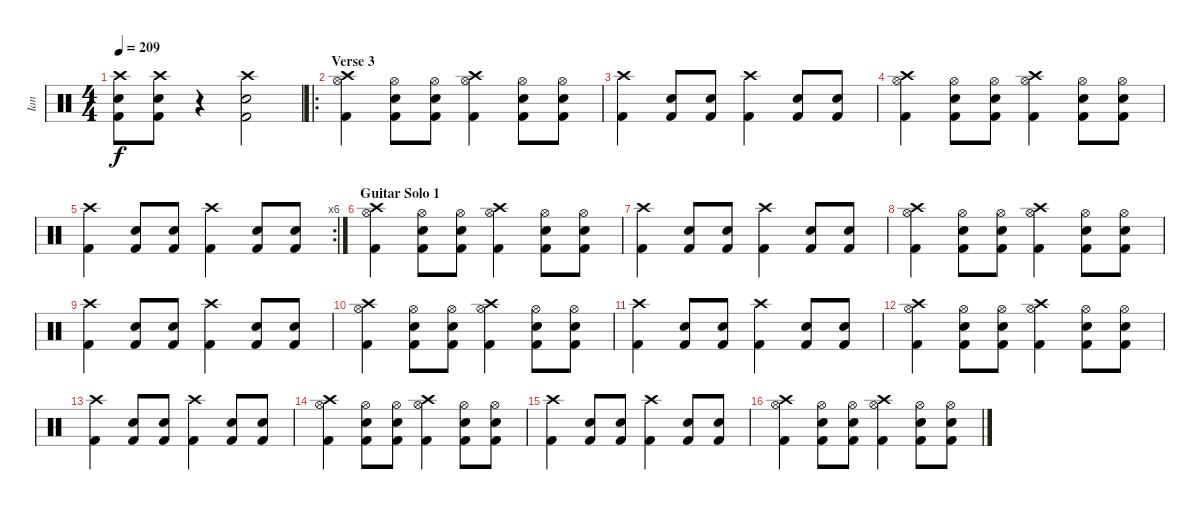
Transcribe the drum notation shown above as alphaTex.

\track ("Ian" "Ian") {instrument percussion}
\staff {score}
\articulation defaults
\ts (4 4)
\tempo 209
\clef neutral
\ks c
("Crash high (hit)" "Electric Snare (hit)" "Kick (hit) 2").8{dy f} ("Crash high (hit)" "Electric Snare (hit)" "Kick (hit) 2").8 r.4 ("Electric Snare (hit)" "Crash high (hit)" "Kick (hit) 2").2 |
\ro
\section ("" "Verse 3")
("Hi-Hat (open)" "Crash high (hit)" "Kick (hit) 2").4 ("Electric Snare (hit)" "Hi-Hat (open)" "Kick (hit) 2").8 ("Electric Snare (hit)" "Hi-Hat (open)" "Kick (hit) 2").8 ("Hi-Hat (open)" "Crash high (hit)" "Kick (hit) 2").4 ("Electric Snare (hit)" "Hi-Hat (open)" "Kick (hit) 2").8 ("Electric Snare (hit)" "Hi-Hat (open)" "Kick (hit) 2").8 |
("Crash high (hit)" "Kick (hit) 2").4 ("Electric Snare (hit)" "Kick (hit) 2").8 ("Electric Snare (hit)" "Kick (hit) 2").8 ("Crash high (hit)" "Kick (hit) 2").4 ("Electric Snare (hit)" "Kick (hit) 2").8 ("Electric Snare (hit)" "Kick (hit) 2").8 |
("Hi-Hat (open)" "Crash high (hit)" "Kick (hit) 2").4 ("Electric Snare (hit)" "Hi-Hat (open)" "Kick (hit) 2").8 ("Electric Snare (hit)" "Hi-Hat (open)" "Kick (hit) 2").8 ("Hi-Hat (open)" "Crash high (hit)" "Kick (hit) 2").4 ("Electric Snare (hit)" "Hi-Hat (open)" "Kick (hit) 2").8 ("Electric Snare (hit)" "Hi-Hat (open)" "Kick (hit) 2").8 |
\rc 6
("Crash high (hit)" "Kick (hit) 2").4 ("Electric Snare (hit)" "Kick (hit) 2").8 ("Electric Snare (hit)" "Kick (hit) 2").8 ("Crash high (hit)" "Kick (hit) 2").4 ("Electric Snare (hit)" "Kick (hit) 2").8 ("Electric Snare (hit)" "Kick (hit) 2").8 |
\section ("" "Guitar Solo 1")
("Hi-Hat (open)" "Crash high (hit)" "Kick (hit) 2").4 ("Electric Snare (hit)" "Hi-Hat (open)" "Kick (hit) 2").8 ("Electric Snare (hit)" "Hi-Hat (open)" "Kick (hit) 2").8 ("Hi-Hat (open)" "Crash high (hit)" "Kick (hit) 2").4 ("Electric Snare (hit)" "Hi-Hat (open)" "Kick (hit) 2").8 ("Electric Snare (hit)" "Hi-Hat (open)" "Kick (hit) 2").8 |
("Crash high (hit)" "Kick (hit) 2").4 ("Electric Snare (hit)" "Kick (hit) 2").8 ("Electric Snare (hit)" "Kick (hit) 2").8 ("Crash high (hit)" "Kick (hit) 2").4 ("Electric Snare (hit)" "Kick (hit) 2").8 ("Electric Snare (hit)" "Kick (hit) 2").8 |
("Hi-Hat (open)" "Crash high (hit)" "Kick (hit) 2").4 ("Electric Snare (hit)" "Hi-Hat (open)" "Kick (hit) 2").8 ("Electric Snare (hit)" "Hi-Hat (open)" "Kick (hit) 2").8 ("Hi-Hat (open)" "Crash high (hit)" "Kick (hit) 2").4 ("Electric Snare (hit)" "Hi-Hat (open)" "Kick (hit) 2").8 ("Electric Snare (hit)" "Hi-Hat (open)" "Kick (hit) 2").8 |
("Crash high (hit)" "Kick (hit) 2").4 ("Electric Snare (hit)" "Kick (hit) 2").8 ("Electric Snare (hit)" "Kick (hit) 2").8 ("Crash high (hit)" "Kick (hit) 2").4 ("Electric Snare (hit)" "Kick (hit) 2").8 ("Electric Snare (hit)" "Kick (hit) 2").8 |
("Hi-Hat (open)" "Crash high (hit)" "Kick (hit) 2").4 ("Electric Snare (hit)" "Hi-Hat (open)" "Kick (hit) 2").8 ("Electric Snare (hit)" "Hi-Hat (open)" "Kick (hit) 2").8 ("Hi-Hat (open)" "Crash high (hit)" "Kick (hit) 2").4 ("Electric Snare (hit)" "Hi-Hat (open)" "Kick (hit) 2").8 ("Electric Snare (hit)" "Hi-Hat (open)" "Kick (hit) 2").8 |
("Crash high (hit)" "Kick (hit) 2").4 ("Electric Snare (hit)" "Kick (hit) 2").8 ("Electric Snare (hit)" "Kick (hit) 2").8 ("Crash high (hit)" "Kick (hit) 2").4 ("Electric Snare (hit)" "Kick (hit) 2").8 ("Electric Snare (hit)" "Kick (hit) 2").8 |
("Hi-Hat (open)" "Crash high (hit)" "Kick (hit) 2").4 ("Electric Snare (hit)" "Hi-Hat (open)" "Kick (hit) 2").8 ("Electric Snare (hit)" "Hi-Hat (open)" "Kick (hit) 2").8 ("Hi-Hat (open)" "Crash high (hit)" "Kick (hit) 2").4 ("Electric Snare (hit)" "Hi-Hat (open)" "Kick (hit) 2").8 ("Electric Snare (hit)" "Hi-Hat (open)" "Kick (hit) 2").8 |
("Crash high (hit)" "Kick (hit) 2").4 ("Electric Snare (hit)" "Kick (hit) 2").8 ("Electric Snare (hit)" "Kick (hit) 2").8 ("Crash high (hit)" "Kick (hit) 2").4 ("Electric Snare (hit)" "Kick (hit) 2").8 ("Electric Snare (hit)" "Kick (hit) 2").8 |
("Hi-Hat (open)" "Crash high (hit)" "Kick (hit) 2").4 ("Electric Snare (hit)" "Hi-Hat (open)" "Kick (hit) 2").8 ("Electric Snare (hit)" "Hi-Hat (open)" "Kick (hit) 2").8 ("Hi-Hat (open)" "Crash high (hit)" "Kick (hit) 2").4 ("Electric Snare (hit)" "Hi-Hat (open)" "Kick (hit) 2").8 ("Electric Snare (hit)" "Hi-Hat (open)" "Kick (hit) 2").8 |
("Crash high (hit)" "Kick (hit) 2").4 ("Electric Snare (hit)" "Kick (hit) 2").8 ("Electric Snare (hit)" "Kick (hit) 2").8 ("Crash high (hit)" "Kick (hit) 2").4 ("Electric Snare (hit)" "Kick (hit) 2").8 ("Electric Snare (hit)" "Kick (hit) 2").8 |
("Hi-Hat (open)" "Crash high (hit)" "Kick (hit) 2").4 ("Electric Snare (hit)" "Hi-Hat (open)" "Kick (hit) 2").8 ("Electric Snare (hit)" "Hi-Hat (open)" "Kick (hit) 2").8 ("Hi-Hat (open)" "Crash high (hit)" "Kick (hit) 2").4 ("Electric Snare (hit)" "Hi-Hat (open)" "Kick (hit) 2").8 ("Electric Snare (hit)" "Hi-Hat (open)" "Kick (hit) 2").8
